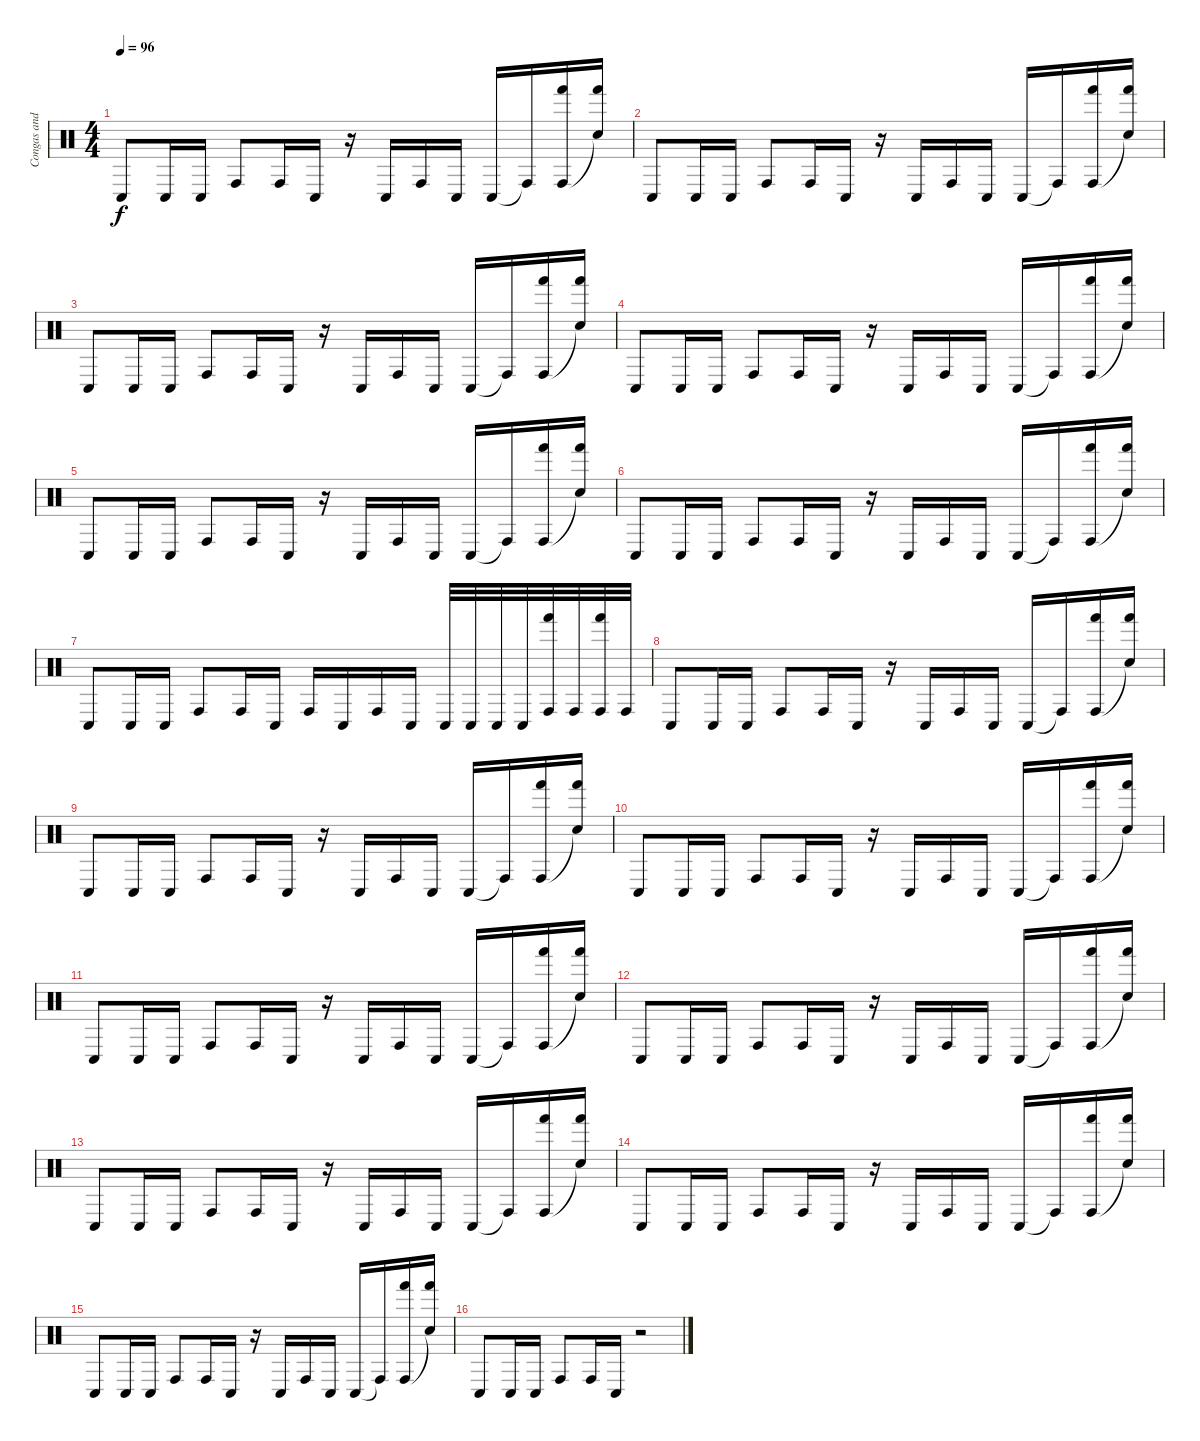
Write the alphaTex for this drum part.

\track ("Congas and Bongos" "Congas and") {instrument percussion}
\staff {score}
\articulation defaults
\ts (4 4)
\tempo 96
\clef neutral
\ks c "Conga low (hit)".8{dy f} "Conga low (hit)".16 "Conga low (hit)".16 "Conga high (hit)".8 "Conga high (hit)".16 "Conga low (hit)".16
r.16 "Conga low (hit)".16 "Conga high (hit)".16 "Conga low (hit)".16 "Conga low (hit)".16 "Conga high (hit)"{t}.16 ("Conga high (hit)" "Hand (hit)").16 ("Snare (hit)"{t} "Hand (hit)").16 |
"Conga low (hit)".8 "Conga low (hit)".16 "Conga low (hit)".16 "Conga high (hit)".8 "Conga high (hit)".16 "Conga low (hit)".16 r.16 "Conga low (hit)".16 "Conga high (hit)".16 "Conga low (hit)".16 "Conga low (hit)".16 "Conga high (hit)"{t}.16 ("Conga high (hit)" "Hand (hit)").16 ("Snare (hit)"{t} "Hand (hit)").16 |
"Conga low (hit)".8 "Conga low (hit)".16 "Conga low (hit)".16 "Conga high (hit)".8 "Conga high (hit)".16 "Conga low (hit)".16 r.16 "Conga low (hit)".16 "Conga high (hit)".16 "Conga low (hit)".16 "Conga low (hit)".16 "Conga high (hit)"{t}.16 ("Conga high (hit)" "Hand (hit)").16 ("Snare (hit)"{t} "Hand (hit)").16 |
"Conga low (hit)".8 "Conga low (hit)".16 "Conga low (hit)".16 "Conga high (hit)".8 "Conga high (hit)".16 "Conga low (hit)".16 r.16 "Conga low (hit)".16 "Conga high (hit)".16 "Conga low (hit)".16 "Conga low (hit)".16 "Conga high (hit)"{t}.16 ("Conga high (hit)" "Hand (hit)").16 ("Snare (hit)"{t} "Hand (hit)").16 |
"Conga low (hit)".8 "Conga low (hit)".16 "Conga low (hit)".16 "Conga high (hit)".8 "Conga high (hit)".16 "Conga low (hit)".16 r.16 "Conga low (hit)".16 "Conga high (hit)".16 "Conga low (hit)".16 "Conga low (hit)".16 "Conga high (hit)"{t}.16 ("Conga high (hit)" "Hand (hit)").16 ("Snare (hit)"{t} "Hand (hit)").16 |
"Conga low (hit)".8 "Conga low (hit)".16 "Conga low (hit)".16 "Conga high (hit)".8 "Conga high (hit)".16 "Conga low (hit)".16 r.16 "Conga low (hit)".16 "Conga high (hit)".16 "Conga low (hit)".16 "Conga low (hit)".16 "Conga high (hit)"{t}.16 ("Conga high (hit)" "Hand (hit)").16 ("Snare (hit)"{t} "Hand (hit)").16 |
"Conga low (hit)".8 "Conga low (hit)".16 "Conga low (hit)".16 "Conga high (hit)".8 "Conga high (hit)".16 "Conga low (hit)".16 "Conga high (hit)".16 "Conga low (hit)".16 "Conga high (hit)".16 "Conga low (hit)".16 "Conga low (hit)".32 "Conga low (hit)".32 "Conga low (hit)".32 "Conga low (hit)".32 ("Conga high (hit)" "Hand (hit)").32 "Conga high (hit)".32 ("Conga high (hit)" "Hand (hit)").32 "Conga high (hit)".32 |
"Conga low (hit)".8 "Conga low (hit)".16 "Conga low (hit)".16 "Conga high (hit)".8 "Conga high (hit)".16 "Conga low (hit)".16 r.16 "Conga low (hit)".16 "Conga high (hit)".16 "Conga low (hit)".16 "Conga low (hit)".16 "Conga high (hit)"{t}.16 ("Conga high (hit)" "Hand (hit)").16 ("Snare (hit)"{t} "Hand (hit)").16 |
"Conga low (hit)".8 "Conga low (hit)".16 "Conga low (hit)".16 "Conga high (hit)".8 "Conga high (hit)".16 "Conga low (hit)".16 r.16 "Conga low (hit)".16 "Conga high (hit)".16 "Conga low (hit)".16 "Conga low (hit)".16 "Conga high (hit)"{t}.16 ("Conga high (hit)" "Hand (hit)").16 ("Snare (hit)"{t} "Hand (hit)").16 |
"Conga low (hit)".8 "Conga low (hit)".16 "Conga low (hit)".16 "Conga high (hit)".8 "Conga high (hit)".16 "Conga low (hit)".16 r.16 "Conga low (hit)".16 "Conga high (hit)".16 "Conga low (hit)".16 "Conga low (hit)".16 "Conga high (hit)"{t}.16 ("Conga high (hit)" "Hand (hit)").16 ("Snare (hit)"{t} "Hand (hit)").16 |
"Conga low (hit)".8 "Conga low (hit)".16 "Conga low (hit)".16 "Conga high (hit)".8 "Conga high (hit)".16 "Conga low (hit)".16 r.16 "Conga low (hit)".16 "Conga high (hit)".16 "Conga low (hit)".16 "Conga low (hit)".16 "Conga high (hit)"{t}.16 ("Conga high (hit)" "Hand (hit)").16 ("Snare (hit)"{t} "Hand (hit)").16 |
"Conga low (hit)".8 "Conga low (hit)".16 "Conga low (hit)".16 "Conga high (hit)".8 "Conga high (hit)".16 "Conga low (hit)".16 r.16 "Conga low (hit)".16 "Conga high (hit)".16 "Conga low (hit)".16 "Conga low (hit)".16 "Conga high (hit)"{t}.16 ("Conga high (hit)" "Hand (hit)").16 ("Snare (hit)"{t} "Hand (hit)").16 |
"Conga low (hit)".8 "Conga low (hit)".16 "Conga low (hit)".16 "Conga high (hit)".8 "Conga high (hit)".16 "Conga low (hit)".16 r.16 "Conga low (hit)".16 "Conga high (hit)".16 "Conga low (hit)".16 "Conga low (hit)".16 "Conga high (hit)"{t}.16 ("Conga high (hit)" "Hand (hit)").16 ("Snare (hit)"{t} "Hand (hit)").16 |
"Conga low (hit)".8 "Conga low (hit)".16 "Conga low (hit)".16 "Conga high (hit)".8 "Conga high (hit)".16 "Conga low (hit)".16 r.16 "Conga low (hit)".16 "Conga high (hit)".16 "Conga low (hit)".16 "Conga low (hit)".16 "Conga high (hit)"{t}.16 ("Conga high (hit)" "Hand (hit)").16 ("Snare (hit)"{t} "Hand (hit)").16 |
"Conga low (hit)".8 "Conga low (hit)".16 "Conga low (hit)".16 "Conga high (hit)".8 "Conga high (hit)".16 "Conga low (hit)".16 r.16 "Conga low (hit)".16 "Conga high (hit)".16 "Conga low (hit)".16 "Conga low (hit)".16 "Conga high (hit)"{t}.16 ("Conga high (hit)" "Hand (hit)").16 ("Snare (hit)"{t} "Hand (hit)").16 |
"Conga low (hit)".8 "Conga low (hit)".16 "Conga low (hit)".16 "Conga high (hit)".8 "Conga high (hit)".16 "Conga low (hit)".16 r.2
